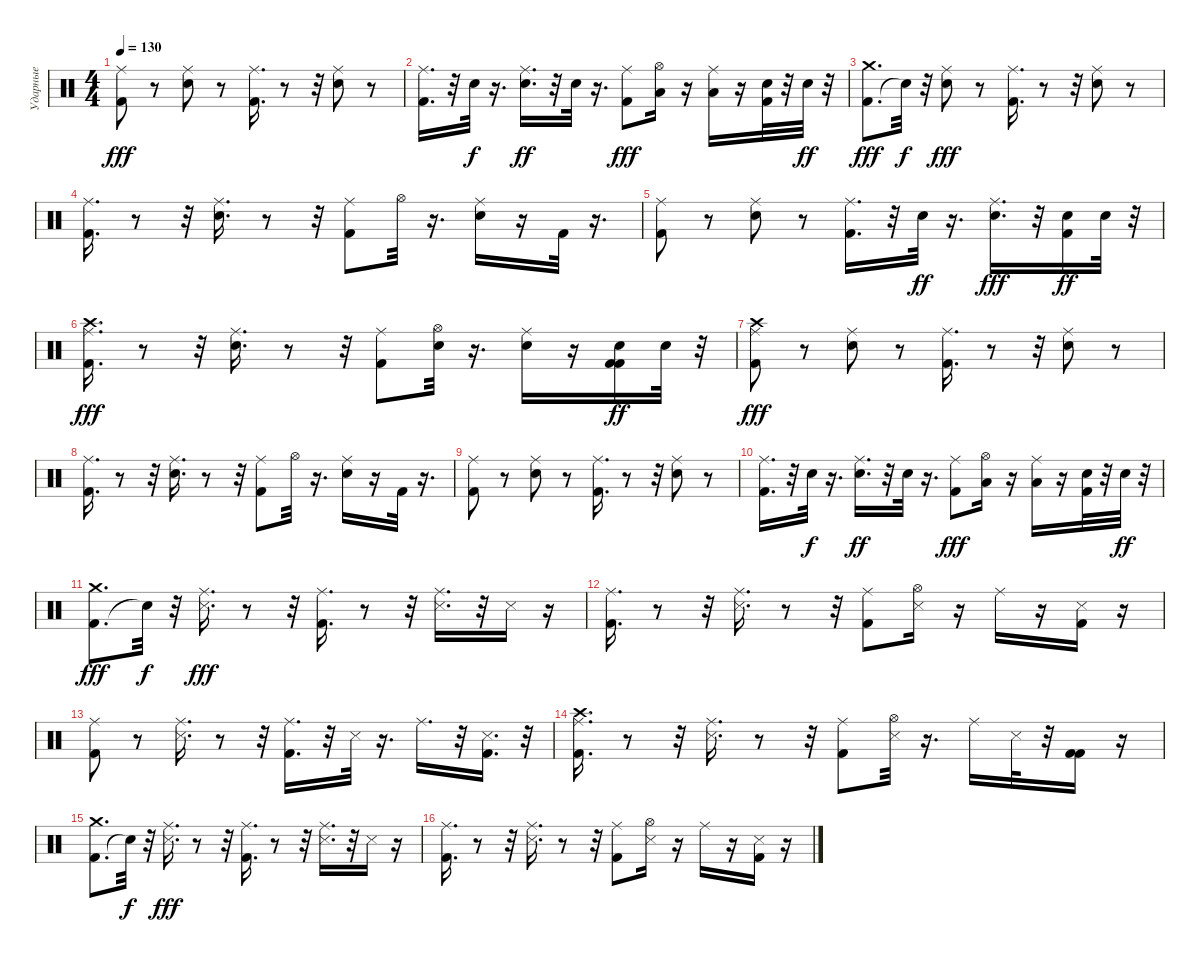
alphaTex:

\track ("Ударные" "Ударные") {instrument percussion}
\staff {score}
\articulation defaults
\ts (4 4)
\tempo 130
\clef neutral
\ks c
("Kick (hit) 2" "Ride (middle)").8{dy fff} r.8 ("Electric Snare (hit)" "Ride (middle)").8 r.8 ("Kick (hit) 2" "Ride (middle)").16{d} r.8 r.32 ("Electric Snare (hit)" "Ride (middle)").8 r.8 |
("Ride (middle)" "Kick (hit) 2").16{d} r.32 "Electric Snare (hit)".32{dy f} r.16{d} ("Ride (middle)" "Electric Snare (hit)").16{d dy ff} r.32 "Electric Snare (hit)".32 r.16{d} ("Kick (hit) 2" "Ride (middle)").8{dy fff} ("Low Tom (hit)" "Hi-Hat (open)").16 r.16 ("Low Tom (hit)" "Ride (middle)").16 r.16 ("Kick (hit) 2" "Snare (hit) 2").32 r.32 "Snare (hit) 2".32{dy ff} r.32 |
("Kick (hit) 2" "Crash medium (hit)").8{d dy fff} "Snare (hit)"{t}.32{dy f} r.32 ("Electric Snare (hit)" "Ride (middle)").8{dy fff} r.8 ("Kick (hit) 2" "Ride (middle)").16{d} r.8 r.32 ("Electric Snare (hit)" "Ride (middle)").8 r.8 |
("Ride (middle)" "Kick (hit) 2").16{d} r.8 r.32 ("Electric Snare (hit)" "Ride (middle)").16{d} r.8 r.32 ("Kick (hit) 2" "Ride (middle)").8 "Hi-Hat (open)".32 r.16{d} ("Electric Snare (hit)" "Ride (middle)").16 r.16 "Kick (hit) 2".32 r.16{d} |
("Kick (hit) 2" "Ride (middle)").8 r.8 ("Electric Snare (hit)" "Ride (middle)").8 r.8 ("Kick (hit) 2" "Ride (middle)").16{d} r.32 "Electric Snare (hit)".32{dy ff} r.16{d} ("Electric Snare (hit)" "Ride (middle)").16{d dy fff} r.32 ("Kick (hit) 2" "Electric Snare (hit)").16{dy ff} "Electric Snare (hit)".32 r.32 |
("Crash high (hit)" "Ride (middle)" "Kick (hit) 2").16{d dy fff} r.8 r.32 ("Electric Snare (hit)" "Ride (middle)").16{d} r.8 r.32 ("Kick (hit) 2" "Ride (middle)").8 ("Electric Snare (hit)" "Hi-Hat (open)").32 r.16{d} ("Electric Snare (hit)" "Ride (middle)").16 r.16 ("Kick (hit) 2" "Kick (hit) 2" "Electric Snare (hit)").16{dy ff} "Electric Snare (hit)".32 r.32 |
("Kick (hit) 2" "Crash high (hit)" "Ride (middle)").8{dy fff} r.8 ("Electric Snare (hit)" "Ride (middle)").8 r.8 ("Kick (hit) 2" "Ride (middle)").16{d} r.8 r.32 ("Electric Snare (hit)" "Ride (middle)").8 r.8 |
("Ride (middle)" "Kick (hit) 2").16{d} r.8 r.32 ("Electric Snare (hit)" "Ride (middle)").16{d} r.8 r.32 ("Kick (hit) 2" "Ride (middle)").8 "Hi-Hat (open)".32 r.16{d} ("Electric Snare (hit)" "Ride (middle)").16 r.16 "Kick (hit) 2".32 r.16{d} |
("Kick (hit) 2" "Ride (middle)").8 r.8 ("Electric Snare (hit)" "Ride (middle)").8 r.8 ("Kick (hit) 2" "Ride (middle)").16{d} r.8 r.32 ("Electric Snare (hit)" "Ride (middle)").8 r.8 |
("Ride (middle)" "Kick (hit) 2").16{d} r.32 "Electric Snare (hit)".32{dy f} r.16{d} ("Ride (middle)" "Electric Snare (hit)").16{d dy ff} r.32 "Electric Snare (hit)".32 r.16{d} ("Kick (hit) 2" "Ride (middle)").8{dy fff} ("Low Tom (hit)" "Hi-Hat (open)").16 r.16 ("Low Tom (hit)" "Ride (middle)").16 r.16 ("Kick (hit) 2" "Snare (hit) 2").32 r.32 "Snare (hit) 2".32{dy ff} r.32 |
("Kick (hit) 2" "Crash medium (hit)").8{d dy fff} "Snare (hit)"{t}.32{dy f} r.32 ("Snare (side stick) 3" "Ride (middle)").16{d dy fff} r.8 r.32 ("Kick (hit) 2" "Ride (middle)").16{d} r.8 r.32 ("Ride (middle)" "Snare (side stick) 3").16{d} r.32 "Snare (side stick) 3".16 r.16 |
("Ride (middle)" "Kick (hit) 2").16{d} r.8 r.32 ("Ride (middle)" "Snare (side stick) 3").16{d} r.8 r.32 ("Kick (hit) 2" "Ride (middle)").8 ("Snare (side stick) 3" "Hi-Hat (open)").16 r.16 "Ride (middle)".16 r.16 ("Kick (hit) 2" "Snare (side stick) 3").16 r.16 |
("Kick (hit) 2" "Ride (middle)").8 r.8 ("Snare (side stick) 3" "Ride (middle)").16{d} r.8 r.32 ("Kick (hit) 2" "Ride (middle)").16{d} r.32 "Snare (side stick) 3".32 r.16{d} "Ride (middle)".16{d} r.32 ("Kick (hit) 2" "Snare (side stick) 3").16{d} r.32 |
("Crash high (hit)" "Ride (middle)" "Kick (hit) 2").16{d} r.8 r.32 ("Ride (middle)" "Snare (side stick) 3").16{d} r.8 r.32 ("Kick (hit) 2" "Ride (middle)").8 ("Hi-Hat (open)" "Snare (side stick) 3").32 r.16{d} "Ride (middle)".16 "Snare (side stick) 3".32 r.32 ("Kick (hit) 2" "Kick (hit) 2").16 r.16 |
("Kick (hit) 2" "Crash medium (hit)").8{d} "Snare (hit)"{t}.32{dy f} r.32 ("Snare (side stick) 3" "Ride (middle)").16{d dy fff} r.8 r.32 ("Kick (hit) 2" "Ride (middle)").16{d} r.8 r.32 ("Ride (middle)" "Snare (side stick) 3").16{d} r.32 "Snare (side stick) 3".16 r.16 |
("Ride (middle)" "Kick (hit) 2").16{d} r.8 r.32 ("Ride (middle)" "Snare (side stick) 3").16{d} r.8 r.32 ("Kick (hit) 2" "Ride (middle)").8 ("Snare (side stick) 3" "Hi-Hat (open)").16 r.16 "Ride (middle)".16 r.16 ("Kick (hit) 2" "Snare (side stick) 3").16 r.16
